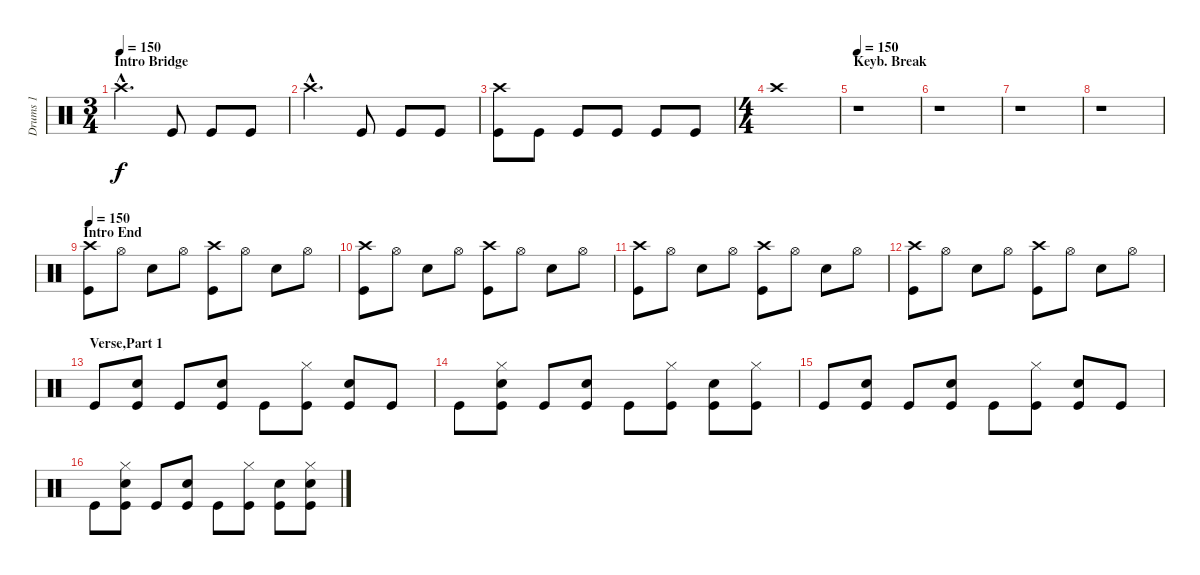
\track ("Drums 1" "Drums 1") {instrument percussion}
\staff {score}
\articulation defaults
\ts (3 4)
\section ("" "Intro Bridge")
\tempo 150
\clef neutral
\ks c "Crash high (hit)"{hac}.4{d dy f} "Kick (hit)".8 "Kick (hit)".8 "Kick (hit)".8
|
"Crash high (hit)"{hac}.4{d} "Kick (hit)".8 "Kick (hit)".8 "Kick (hit)".8 |
("Crash high (hit)" "Kick (hit)").8 "Kick (hit)".8 "Kick (hit)".8 "Kick (hit)".8 "Kick (hit)".8 "Kick (hit)".8 |
\ts (4 4)
"Crash high (hit)".1 |
\section ("" "Keyb. Break")
\tempo 150
r.1 |
r.1 |
r.1 |
r.1 |
\section ("" "Intro End")
\tempo 150
("Crash high (hit)" "Kick (hit)").8 "Hi-Hat (open)".8 "Snare (hit) 2".8 "Hi-Hat (open)".8 ("Crash high (hit)" "Kick (hit)").8 "Hi-Hat (open)".8 "Snare (hit) 2".8 "Hi-Hat (open)".8 |
("Crash high (hit)" "Kick (hit)").8 "Hi-Hat (open)".8 "Snare (hit) 2".8 "Hi-Hat (open)".8 ("Crash high (hit)" "Kick (hit)").8 "Hi-Hat (open)".8 "Snare (hit) 2".8 "Hi-Hat (open)".8 |
("Crash high (hit)" "Kick (hit)").8 "Hi-Hat (open)".8 "Snare (hit) 2".8 "Hi-Hat (open)".8 ("Crash high (hit)" "Kick (hit)").8 "Hi-Hat (open)".8 "Snare (hit) 2".8 "Hi-Hat (open)".8 |
("Crash high (hit)" "Kick (hit)").8 "Hi-Hat (open)".8 "Snare (hit) 2".8 "Hi-Hat (open)".8 ("Crash high (hit)" "Kick (hit)").8 "Hi-Hat (open)".8 "Snare (hit) 2".8 "Hi-Hat (open)".8 |
\section ("" "Verse,Part 1")
"Kick (hit)".8 ("Snare (hit) 2" "Kick (hit)").8 "Kick (hit)".8 ("Snare (hit) 2" "Kick (hit)").8 "Kick (hit)".8 ("Hi-Hat (closed)" "Kick (hit)").8 ("Snare (hit) 2" "Kick (hit)").8 "Kick (hit)".8 |
"Kick (hit)".8 ("Snare (hit) 2" "Hi-Hat (closed)" "Kick (hit)").8 "Kick (hit)".8 ("Snare (hit) 2" "Kick (hit)").8 "Kick (hit)".8 ("Hi-Hat (closed)" "Kick (hit)").8 ("Snare (hit) 2" "Kick (hit)").8 ("Hi-Hat (closed)" "Kick (hit)").8 |
"Kick (hit)".8 ("Snare (hit) 2" "Kick (hit)").8 "Kick (hit)".8 ("Snare (hit) 2" "Kick (hit)").8 "Kick (hit)".8 ("Hi-Hat (closed)" "Kick (hit)").8 ("Snare (hit) 2" "Kick (hit)").8 "Kick (hit)".8 |
"Kick (hit)".8 ("Snare (hit) 2" "Hi-Hat (closed)" "Kick (hit)").8 "Kick (hit)".8 ("Snare (hit) 2" "Kick (hit)").8 "Kick (hit)".8 ("Hi-Hat (closed)" "Kick (hit)").8 ("Snare (hit) 2" "Kick (hit)").8 ("Snare (hit) 2" "Hi-Hat (closed)" "Kick (hit)").8
